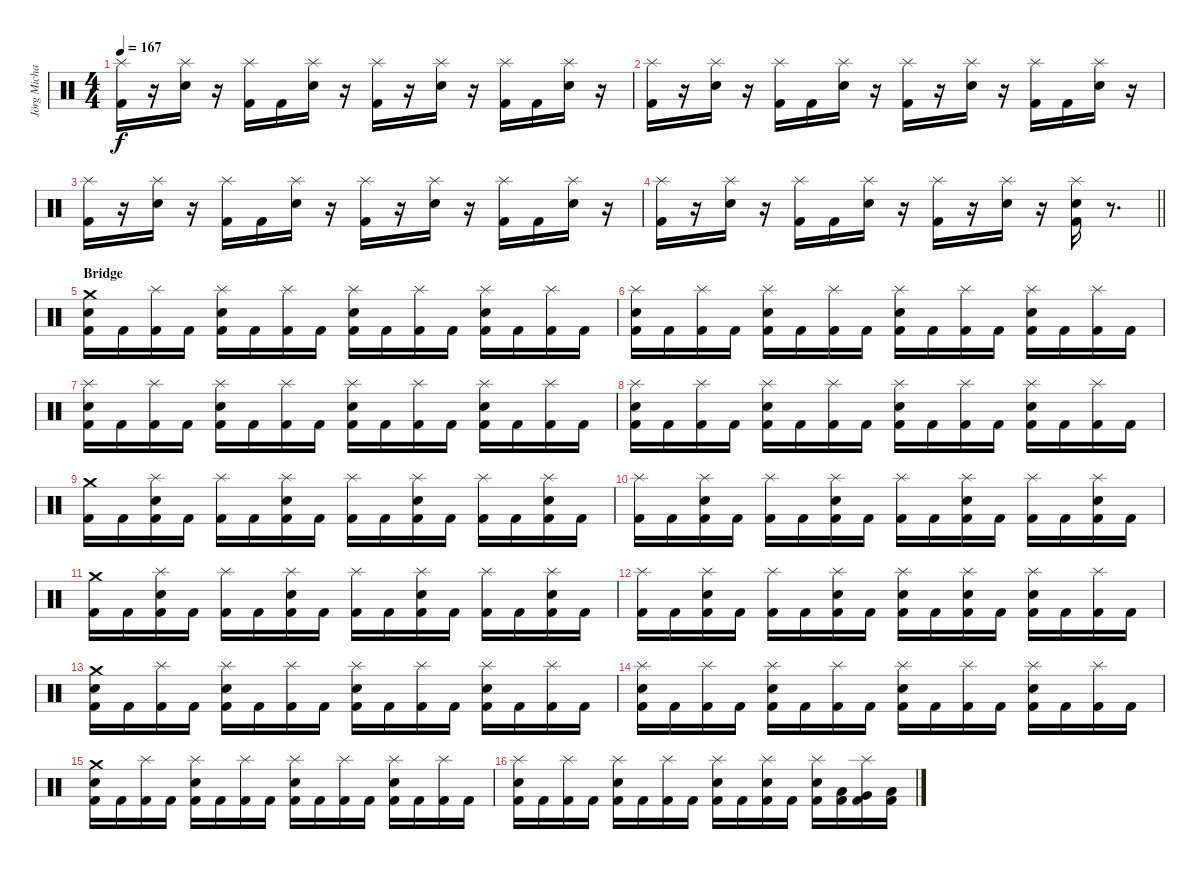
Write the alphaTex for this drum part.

\track ("Jörg Michael" "Jörg Micha") {instrument percussion}
\staff {score}
\articulation defaults
\ts (4 4)
\tempo 167
\clef neutral
\ks c
("Splash (hit)" "Kick (hit) 2").16{dy f} r.16 ("Splash (hit)" "Snare (hit) 2").16 r.16 ("Splash (hit)" "Kick (hit) 2").16 "Kick (hit) 2".16 ("Splash (hit)" "Snare (hit) 2").16 r.16 ("Splash (hit)" "Kick (hit) 2").16 r.16 ("Splash (hit)" "Snare (hit) 2").16 r.16 ("Splash (hit)" "Kick (hit) 2").16 "Kick (hit) 2".16 ("Splash (hit)" "Snare (hit) 2").16 r.16 |
("Splash (hit)" "Kick (hit) 2").16 r.16 ("Splash (hit)" "Snare (hit) 2").16 r.16 ("Splash (hit)" "Kick (hit) 2").16 "Kick (hit) 2".16 ("Splash (hit)" "Snare (hit) 2").16 r.16 ("Splash (hit)" "Kick (hit) 2").16 r.16 ("Splash (hit)" "Snare (hit) 2").16 r.16 ("Splash (hit)" "Kick (hit) 2").16 "Kick (hit) 2".16 ("Splash (hit)" "Snare (hit) 2").16 r.16 |
("Splash (hit)" "Kick (hit) 2").16 r.16 ("Splash (hit)" "Snare (hit) 2").16 r.16 ("Splash (hit)" "Kick (hit) 2").16 "Kick (hit) 2".16 ("Splash (hit)" "Snare (hit) 2").16 r.16 ("Splash (hit)" "Kick (hit) 2").16 r.16 ("Splash (hit)" "Snare (hit) 2").16 r.16 ("Splash (hit)" "Kick (hit) 2").16 "Kick (hit) 2".16 ("Splash (hit)" "Snare (hit) 2").16 r.16 |
\barLineRight lightlight
("Splash (hit)" "Kick (hit) 2").16 r.16 ("Splash (hit)" "Snare (hit) 2").16 r.16 ("Splash (hit)" "Kick (hit) 2").16 "Kick (hit) 2".16 ("Splash (hit)" "Snare (hit) 2").16 r.16 ("Splash (hit)" "Kick (hit) 2").16 r.16 ("Splash (hit)" "Snare (hit) 2").16 r.16 ("Splash (hit)" "Snare (hit) 2" "Kick (hit) 2").16 r.8{d} |
\section ("" "Bridge")
("Crash medium (hit)" "Snare (hit) 2" "Kick (hit) 2").16 "Kick (hit) 2".16 ("Splash (hit)" "Kick (hit) 2").16 "Kick (hit) 2".16 ("Splash (hit)" "Snare (hit) 2" "Kick (hit) 2").16 "Kick (hit) 2".16 ("Splash (hit)" "Kick (hit) 2").16 "Kick (hit) 2".16 ("Splash (hit)" "Snare (hit) 2" "Kick (hit) 2").16 "Kick (hit) 2".16 ("Splash (hit)" "Kick (hit) 2").16 "Kick (hit) 2".16 ("Splash (hit)" "Snare (hit) 2" "Kick (hit) 2").16 "Kick (hit) 2".16 ("Splash (hit)" "Kick (hit) 2").16 "Kick (hit) 2".16 |
("Splash (hit)" "Snare (hit) 2" "Kick (hit) 2").16 "Kick (hit) 2".16 ("Splash (hit)" "Kick (hit) 2").16 "Kick (hit) 2".16 ("Splash (hit)" "Snare (hit) 2" "Kick (hit) 2").16 "Kick (hit) 2".16 ("Splash (hit)" "Kick (hit) 2").16 "Kick (hit) 2".16 ("Splash (hit)" "Snare (hit) 2" "Kick (hit) 2").16 "Kick (hit) 2".16 ("Splash (hit)" "Kick (hit) 2").16 "Kick (hit) 2".16 ("Splash (hit)" "Snare (hit) 2" "Kick (hit) 2").16 "Kick (hit) 2".16 ("Splash (hit)" "Kick (hit) 2").16 "Kick (hit) 2".16 |
("Splash (hit)" "Snare (hit) 2" "Kick (hit) 2").16 "Kick (hit) 2".16 ("Splash (hit)" "Kick (hit) 2").16 "Kick (hit) 2".16 ("Splash (hit)" "Snare (hit) 2" "Kick (hit) 2").16 "Kick (hit) 2".16 ("Splash (hit)" "Kick (hit) 2").16 "Kick (hit) 2".16 ("Splash (hit)" "Snare (hit) 2" "Kick (hit) 2").16 "Kick (hit) 2".16 ("Splash (hit)" "Kick (hit) 2").16 "Kick (hit) 2".16 ("Splash (hit)" "Snare (hit) 2" "Kick (hit) 2").16 "Kick (hit) 2".16 ("Splash (hit)" "Kick (hit) 2").16 "Kick (hit) 2".16 |
("Splash (hit)" "Snare (hit) 2" "Kick (hit) 2").16 "Kick (hit) 2".16 ("Splash (hit)" "Kick (hit) 2").16 "Kick (hit) 2".16 ("Splash (hit)" "Snare (hit) 2" "Kick (hit) 2").16 "Kick (hit) 2".16 ("Splash (hit)" "Kick (hit) 2").16 "Kick (hit) 2".16 ("Splash (hit)" "Snare (hit) 2" "Kick (hit) 2").16 "Kick (hit) 2".16 ("Splash (hit)" "Kick (hit) 2").16 "Kick (hit) 2".16 ("Splash (hit)" "Snare (hit) 2" "Kick (hit) 2").16 "Kick (hit) 2".16 ("Splash (hit)" "Kick (hit) 2").16 "Kick (hit) 2".16 |
("Crash medium (hit)" "Kick (hit) 2").16 "Kick (hit) 2".16 ("Splash (hit)" "Snare (hit) 2" "Kick (hit) 2").16 "Kick (hit) 2".16 ("Splash (hit)" "Kick (hit) 2").16 "Kick (hit) 2".16 ("Splash (hit)" "Snare (hit) 2" "Kick (hit) 2").16 "Kick (hit) 2".16 ("Splash (hit)" "Kick (hit) 2").16 "Kick (hit) 2".16 ("Splash (hit)" "Snare (hit) 2" "Kick (hit) 2").16 "Kick (hit) 2".16 ("Splash (hit)" "Kick (hit) 2").16 "Kick (hit) 2".16 ("Splash (hit)" "Snare (hit) 2" "Kick (hit) 2").16 "Kick (hit) 2".16 |
("Splash (hit)" "Kick (hit) 2").16 "Kick (hit) 2".16 ("Splash (hit)" "Snare (hit) 2" "Kick (hit) 2").16 "Kick (hit) 2".16 ("Splash (hit)" "Kick (hit) 2").16 "Kick (hit) 2".16 ("Splash (hit)" "Snare (hit) 2" "Kick (hit) 2").16 "Kick (hit) 2".16 ("Splash (hit)" "Kick (hit) 2").16 "Kick (hit) 2".16 ("Splash (hit)" "Snare (hit) 2" "Kick (hit) 2").16 "Kick (hit) 2".16 ("Splash (hit)" "Kick (hit) 2").16 "Kick (hit) 2".16 ("Splash (hit)" "Snare (hit) 2" "Kick (hit) 2").16 "Kick (hit) 2".16 |
("Crash medium (hit)" "Kick (hit) 2").16 "Kick (hit) 2".16 ("Splash (hit)" "Snare (hit) 2" "Kick (hit) 2").16 "Kick (hit) 2".16 ("Splash (hit)" "Kick (hit) 2").16 "Kick (hit) 2".16 ("Splash (hit)" "Snare (hit) 2" "Kick (hit) 2").16 "Kick (hit) 2".16 ("Splash (hit)" "Kick (hit) 2").16 "Kick (hit) 2".16 ("Splash (hit)" "Snare (hit) 2" "Kick (hit) 2").16 "Kick (hit) 2".16 ("Splash (hit)" "Kick (hit) 2").16 "Kick (hit) 2".16 ("Splash (hit)" "Snare (hit) 2" "Kick (hit) 2").16 "Kick (hit) 2".16 |
("Splash (hit)" "Kick (hit) 2").16 "Kick (hit) 2".16 ("Splash (hit)" "Snare (hit) 2" "Kick (hit) 2").16 "Kick (hit) 2".16 ("Splash (hit)" "Kick (hit) 2").16 "Kick (hit) 2".16 ("Splash (hit)" "Snare (hit) 2" "Kick (hit) 2").16 "Kick (hit) 2".16 ("Splash (hit)" "Snare (hit) 2" "Kick (hit) 2").16 "Kick (hit) 2".16 ("Splash (hit)" "Snare (hit) 2" "Kick (hit) 2").16 "Kick (hit) 2".16 ("Splash (hit)" "Snare (hit) 2" "Kick (hit) 2").16 "Kick (hit) 2".16 ("Splash (hit)" "Kick (hit) 2").16 "Kick (hit) 2".16 |
("Crash medium (hit)" "Snare (hit) 2" "Kick (hit) 2").16 "Kick (hit) 2".16 ("Splash (hit)" "Kick (hit) 2").16 "Kick (hit) 2".16 ("Splash (hit)" "Snare (hit) 2" "Kick (hit) 2").16 "Kick (hit) 2".16 ("Splash (hit)" "Kick (hit) 2").16 "Kick (hit) 2".16 ("Splash (hit)" "Snare (hit) 2" "Kick (hit) 2").16 "Kick (hit) 2".16 ("Splash (hit)" "Kick (hit) 2").16 "Kick (hit) 2".16 ("Splash (hit)" "Snare (hit) 2" "Kick (hit) 2").16 "Kick (hit) 2".16 ("Splash (hit)" "Kick (hit) 2").16 "Kick (hit) 2".16 |
("Splash (hit)" "Snare (hit) 2" "Kick (hit) 2").16 "Kick (hit) 2".16 ("Splash (hit)" "Kick (hit) 2").16 "Kick (hit) 2".16 ("Splash (hit)" "Snare (hit) 2" "Kick (hit) 2").16 "Kick (hit) 2".16 ("Splash (hit)" "Kick (hit) 2").16 "Kick (hit) 2".16 ("Splash (hit)" "Snare (hit) 2" "Kick (hit) 2").16 "Kick (hit) 2".16 ("Splash (hit)" "Kick (hit) 2").16 "Kick (hit) 2".16 ("Splash (hit)" "Snare (hit) 2" "Kick (hit) 2").16 "Kick (hit) 2".16 ("Splash (hit)" "Kick (hit) 2").16 "Kick (hit) 2".16 |
("Crash medium (hit)" "Snare (hit) 2" "Kick (hit) 2").16 "Kick (hit) 2".16 ("Splash (hit)" "Kick (hit) 2").16 "Kick (hit) 2".16 ("Splash (hit)" "Snare (hit) 2" "Kick (hit) 2").16 "Kick (hit) 2".16 ("Splash (hit)" "Kick (hit) 2").16 "Kick (hit) 2".16 ("Splash (hit)" "Snare (hit) 2" "Kick (hit) 2").16 "Kick (hit) 2".16 ("Splash (hit)" "Kick (hit) 2").16 "Kick (hit) 2".16 ("Splash (hit)" "Snare (hit) 2" "Kick (hit) 2").16 "Kick (hit) 2".16 ("Splash (hit)" "Kick (hit) 2").16 "Kick (hit) 2".16 |
("Splash (hit)" "Snare (hit) 2" "Kick (hit) 2").16 "Kick (hit) 2".16 ("Splash (hit)" "Kick (hit) 2").16 "Kick (hit) 2".16 ("Splash (hit)" "Snare (hit) 2" "Kick (hit) 2").16 "Kick (hit) 2".16 ("Splash (hit)" "Kick (hit) 2").16 "Kick (hit) 2".16 ("Splash (hit)" "Snare (hit) 2" "Kick (hit) 2").16 "Kick (hit) 2".16 ("Splash (hit)" "Snare (hit) 2" "Kick (hit) 2").16 "Kick (hit) 2".16 ("Splash (hit)" "Snare (hit) 2" "Kick (hit) 2").16 ("Low Tom (hit)" "Kick (hit) 2").16 ("Splash (hit)" "Very Low Tom (hit)" "Kick (hit) 2").16 ("Low Floor Tom (hit)" "Kick (hit) 2").16
